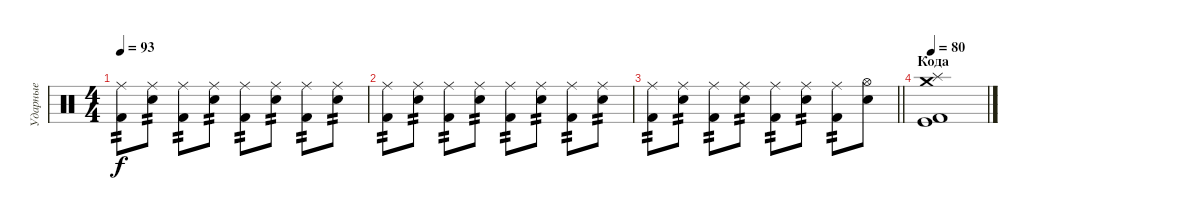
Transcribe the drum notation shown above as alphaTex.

\track ("Ударные" "Ударные") {instrument percussion}
\staff {score}
\articulation defaults
\ts (4 4)
\tempo 93
\clef neutral
\ks c
("Kick (hit) 2" "Ride (middle)").8{tp 2 dy f} ("Electric Snare (hit)" "Ride (middle)").8{tp 2} ("Kick (hit) 2" "Ride (middle)").8{tp 2} ("Electric Snare (hit)" "Ride (middle)").8{tp 2} ("Kick (hit) 2" "Ride (middle)").8{tp 2} ("Electric Snare (hit)" "Ride (middle)").8{tp 2} ("Kick (hit) 2" "Ride (middle)").8{tp 2} ("Electric Snare (hit)" "Ride (middle)").8{tp 2} |
("Kick (hit) 2" "Ride (middle)").8{tp 2} ("Electric Snare (hit)" "Ride (middle)").8{tp 2} ("Kick (hit) 2" "Ride (middle)").8{tp 2} ("Electric Snare (hit)" "Ride (middle)").8{tp 2} ("Kick (hit) 2" "Ride (middle)").8{tp 2} ("Electric Snare (hit)" "Ride (middle)").8{tp 2} ("Kick (hit) 2" "Ride (middle)").8{tp 2} ("Electric Snare (hit)" "Ride (middle)").8{tp 2} |
\barLineRight lightlight
("Kick (hit) 2" "Ride (middle)").8{tp 2} ("Electric Snare (hit)" "Ride (middle)").8{tp 2} ("Kick (hit) 2" "Ride (middle)").8{tp 2} ("Electric Snare (hit)" "Ride (middle)").8{tp 2} ("Kick (hit) 2" "Ride (middle)").8{tp 2} ("Electric Snare (hit)" "Ride (middle)").8{tp 2} ("Kick (hit) 2" "Ride (middle)").8{tp 2} ("Electric Snare (hit)" "Hi-Hat (open)").8 |
\section ("" "Кода")
\tempo 80
("Kick (hit)" "Kick (hit) 2" "Crash medium (hit)" "Splash (hit)").1
